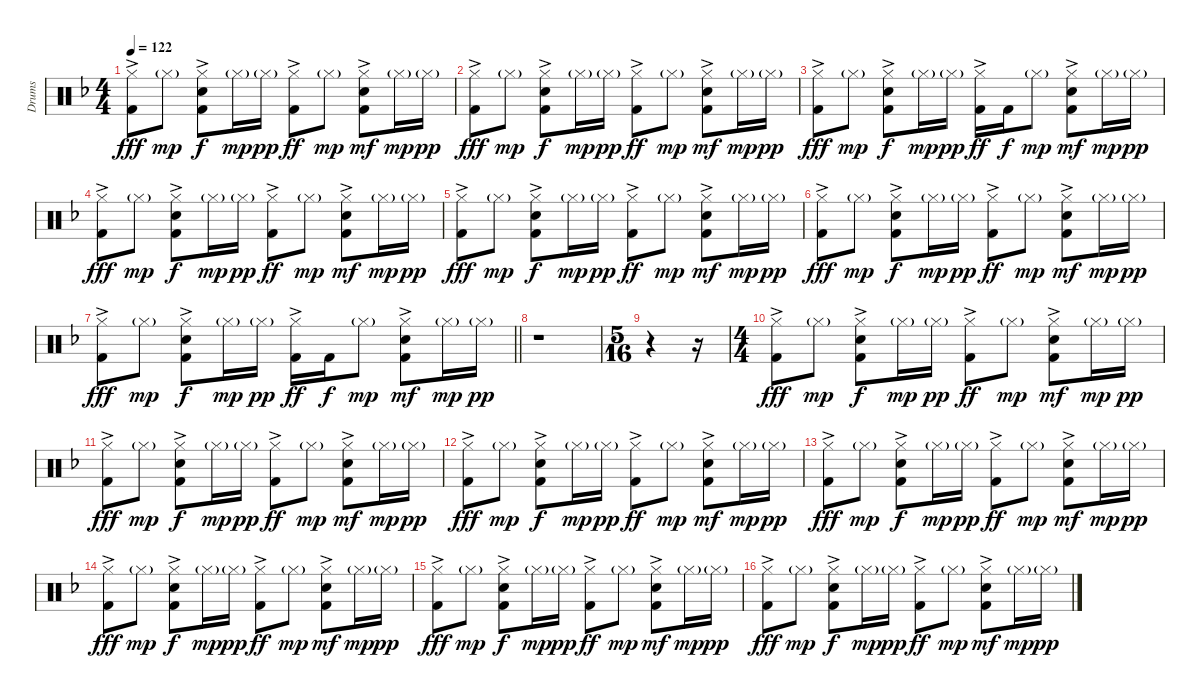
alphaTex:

\track ("Drums" "Drums") {instrument percussion}
\staff {score}
\articulation defaults
\ts (4 4)
\tempo 122
\clef neutral
\ks f
("Kick (hit) 2"{ac} "Hi-Hat (closed)").8{dy fff} "Hi-Hat (closed)"{g}.8{dy mp} ("Kick (hit) 2" "Snare (hit) 2"{ac} "Hi-Hat (closed)").8{dy f} "Hi-Hat (closed)"{g}.16{dy mp} "Hi-Hat (closed)"{g}.16{dy pp} ("Kick (hit) 2"{ac} "Hi-Hat (closed)").8{dy ff} "Hi-Hat (closed)"{g}.8{dy mp} ("Kick (hit) 2" "Snare (hit) 2"{ac} "Hi-Hat (closed)").8{dy mf} "Hi-Hat (closed)"{g}.16{dy mp} "Hi-Hat (closed)"{g}.16{dy pp} |
("Kick (hit) 2"{ac} "Hi-Hat (closed)").8{dy fff} "Hi-Hat (closed)"{g}.8{dy mp} ("Kick (hit) 2" "Snare (hit) 2"{ac} "Hi-Hat (closed)").8{dy f} "Hi-Hat (closed)"{g}.16{dy mp} "Hi-Hat (closed)"{g}.16{dy pp} ("Kick (hit) 2"{ac} "Hi-Hat (closed)").8{dy ff} "Hi-Hat (closed)"{g}.8{dy mp} ("Kick (hit) 2" "Snare (hit) 2"{ac} "Hi-Hat (closed)").8{dy mf} "Hi-Hat (closed)"{g}.16{dy mp} "Hi-Hat (closed)"{g}.16{dy pp} |
("Kick (hit) 2"{ac} "Hi-Hat (closed)").8{dy fff} "Hi-Hat (closed)"{g}.8{dy mp} ("Kick (hit) 2" "Snare (hit) 2"{ac} "Hi-Hat (closed)").8{dy f} "Hi-Hat (closed)"{g}.16{dy mp} "Hi-Hat (closed)"{g}.16{dy pp} ("Kick (hit) 2"{ac} "Hi-Hat (closed)").16{dy ff} "Kick (hit) 2".16{dy f} "Hi-Hat (closed)"{g}.8{dy mp} ("Kick (hit) 2" "Snare (hit) 2"{ac} "Hi-Hat (closed)").8{dy mf} "Hi-Hat (closed)"{g}.16{dy mp} "Hi-Hat (closed)"{g}.16{dy pp} |
("Kick (hit) 2"{ac} "Hi-Hat (closed)").8{dy fff} "Hi-Hat (closed)"{g}.8{dy mp} ("Kick (hit) 2" "Snare (hit) 2"{ac} "Hi-Hat (closed)").8{dy f} "Hi-Hat (closed)"{g}.16{dy mp} "Hi-Hat (closed)"{g}.16{dy pp} ("Kick (hit) 2"{ac} "Hi-Hat (closed)").8{dy ff} "Hi-Hat (closed)"{g}.8{dy mp} ("Kick (hit) 2" "Snare (hit) 2"{ac} "Hi-Hat (closed)").8{dy mf} "Hi-Hat (closed)"{g}.16{dy mp} "Hi-Hat (closed)"{g}.16{dy pp} |
("Kick (hit) 2"{ac} "Hi-Hat (closed)").8{dy fff} "Hi-Hat (closed)"{g}.8{dy mp} ("Kick (hit) 2" "Snare (hit) 2"{ac} "Hi-Hat (closed)").8{dy f} "Hi-Hat (closed)"{g}.16{dy mp} "Hi-Hat (closed)"{g}.16{dy pp} ("Kick (hit) 2"{ac} "Hi-Hat (closed)").8{dy ff} "Hi-Hat (closed)"{g}.8{dy mp} ("Kick (hit) 2" "Snare (hit) 2"{ac} "Hi-Hat (closed)").8{dy mf} "Hi-Hat (closed)"{g}.16{dy mp} "Hi-Hat (closed)"{g}.16{dy pp} |
("Kick (hit) 2"{ac} "Hi-Hat (closed)").8{dy fff} "Hi-Hat (closed)"{g}.8{dy mp} ("Kick (hit) 2" "Snare (hit) 2"{ac} "Hi-Hat (closed)").8{dy f} "Hi-Hat (closed)"{g}.16{dy mp} "Hi-Hat (closed)"{g}.16{dy pp} ("Kick (hit) 2"{ac} "Hi-Hat (closed)").8{dy ff} "Hi-Hat (closed)"{g}.8{dy mp} ("Kick (hit) 2" "Snare (hit) 2"{ac} "Hi-Hat (closed)").8{dy mf} "Hi-Hat (closed)"{g}.16{dy mp} "Hi-Hat (closed)"{g}.16{dy pp} |
\barLineRight lightlight
("Kick (hit) 2"{ac} "Hi-Hat (closed)").8{dy fff} "Hi-Hat (closed)"{g}.8{dy mp} ("Kick (hit) 2" "Snare (hit) 2"{ac} "Hi-Hat (closed)").8{dy f} "Hi-Hat (closed)"{g}.16{dy mp} "Hi-Hat (closed)"{g}.16{dy pp} ("Kick (hit) 2"{ac} "Hi-Hat (closed)").16{dy ff} "Kick (hit) 2".16{dy f} "Hi-Hat (closed)"{g}.8{dy mp} ("Kick (hit) 2" "Snare (hit) 2"{ac} "Hi-Hat (closed)").8{dy mf} "Hi-Hat (closed)"{g}.16{dy mp} "Hi-Hat (closed)"{g}.16{dy pp} |
r.1 |
\ts (5 16)
r.4 r.16 |
\ts (4 4)
("Kick (hit) 2"{ac} "Hi-Hat (closed)").8{dy fff} "Hi-Hat (closed)"{g}.8{dy mp} ("Kick (hit) 2" "Snare (hit) 2"{ac} "Hi-Hat (closed)").8{dy f} "Hi-Hat (closed)"{g}.16{dy mp} "Hi-Hat (closed)"{g}.16{dy pp} ("Kick (hit) 2"{ac} "Hi-Hat (closed)").8{dy ff} "Hi-Hat (closed)"{g}.8{dy mp} ("Kick (hit) 2" "Snare (hit) 2"{ac} "Hi-Hat (closed)").8{dy mf} "Hi-Hat (closed)"{g}.16{dy mp} "Hi-Hat (closed)"{g}.16{dy pp} |
("Kick (hit) 2"{ac} "Hi-Hat (closed)").8{dy fff} "Hi-Hat (closed)"{g}.8{dy mp} ("Kick (hit) 2" "Snare (hit) 2"{ac} "Hi-Hat (closed)").8{dy f} "Hi-Hat (closed)"{g}.16{dy mp} "Hi-Hat (closed)"{g}.16{dy pp} ("Kick (hit) 2"{ac} "Hi-Hat (closed)").8{dy ff} "Hi-Hat (closed)"{g}.8{dy mp} ("Kick (hit) 2" "Snare (hit) 2"{ac} "Hi-Hat (closed)").8{dy mf} "Hi-Hat (closed)"{g}.16{dy mp} "Hi-Hat (closed)"{g}.16{dy pp} |
("Kick (hit) 2"{ac} "Hi-Hat (closed)").8{dy fff} "Hi-Hat (closed)"{g}.8{dy mp} ("Kick (hit) 2" "Snare (hit) 2"{ac} "Hi-Hat (closed)").8{dy f} "Hi-Hat (closed)"{g}.16{dy mp} "Hi-Hat (closed)"{g}.16{dy pp} ("Kick (hit) 2"{ac} "Hi-Hat (closed)").8{dy ff} "Hi-Hat (closed)"{g}.8{dy mp} ("Kick (hit) 2" "Snare (hit) 2"{ac} "Hi-Hat (closed)").8{dy mf} "Hi-Hat (closed)"{g}.16{dy mp} "Hi-Hat (closed)"{g}.16{dy pp} |
("Kick (hit) 2"{ac} "Hi-Hat (closed)").8{dy fff} "Hi-Hat (closed)"{g}.8{dy mp} ("Kick (hit) 2" "Snare (hit) 2"{ac} "Hi-Hat (closed)").8{dy f} "Hi-Hat (closed)"{g}.16{dy mp} "Hi-Hat (closed)"{g}.16{dy pp} ("Kick (hit) 2"{ac} "Hi-Hat (closed)").8{dy ff} "Hi-Hat (closed)"{g}.8{dy mp} ("Kick (hit) 2" "Snare (hit) 2"{ac} "Hi-Hat (closed)").8{dy mf} "Hi-Hat (closed)"{g}.16{dy mp} "Hi-Hat (closed)"{g}.16{dy pp} |
("Kick (hit) 2"{ac} "Hi-Hat (closed)").8{dy fff} "Hi-Hat (closed)"{g}.8{dy mp} ("Kick (hit) 2" "Snare (hit) 2"{ac} "Hi-Hat (closed)").8{dy f} "Hi-Hat (closed)"{g}.16{dy mp} "Hi-Hat (closed)"{g}.16{dy pp} ("Kick (hit) 2"{ac} "Hi-Hat (closed)").8{dy ff} "Hi-Hat (closed)"{g}.8{dy mp} ("Kick (hit) 2" "Snare (hit) 2"{ac} "Hi-Hat (closed)").8{dy mf} "Hi-Hat (closed)"{g}.16{dy mp} "Hi-Hat (closed)"{g}.16{dy pp} |
("Kick (hit) 2"{ac} "Hi-Hat (closed)").8{dy fff} "Hi-Hat (closed)"{g}.8{dy mp} ("Kick (hit) 2" "Snare (hit) 2"{ac} "Hi-Hat (closed)").8{dy f} "Hi-Hat (closed)"{g}.16{dy mp} "Hi-Hat (closed)"{g}.16{dy pp} ("Kick (hit) 2"{ac} "Hi-Hat (closed)").8{dy ff} "Hi-Hat (closed)"{g}.8{dy mp} ("Kick (hit) 2" "Snare (hit) 2"{ac} "Hi-Hat (closed)").8{dy mf} "Hi-Hat (closed)"{g}.16{dy mp} "Hi-Hat (closed)"{g}.16{dy pp} |
("Kick (hit) 2"{ac} "Hi-Hat (closed)").8{dy fff} "Hi-Hat (closed)"{g}.8{dy mp} ("Kick (hit) 2" "Snare (hit) 2"{ac} "Hi-Hat (closed)").8{dy f} "Hi-Hat (closed)"{g}.16{dy mp} "Hi-Hat (closed)"{g}.16{dy pp} ("Kick (hit) 2"{ac} "Hi-Hat (closed)").8{dy ff} "Hi-Hat (closed)"{g}.8{dy mp} ("Kick (hit) 2" "Snare (hit) 2"{ac} "Hi-Hat (closed)").8{dy mf} "Hi-Hat (closed)"{g}.16{dy mp} "Hi-Hat (closed)"{g}.16{dy pp}
